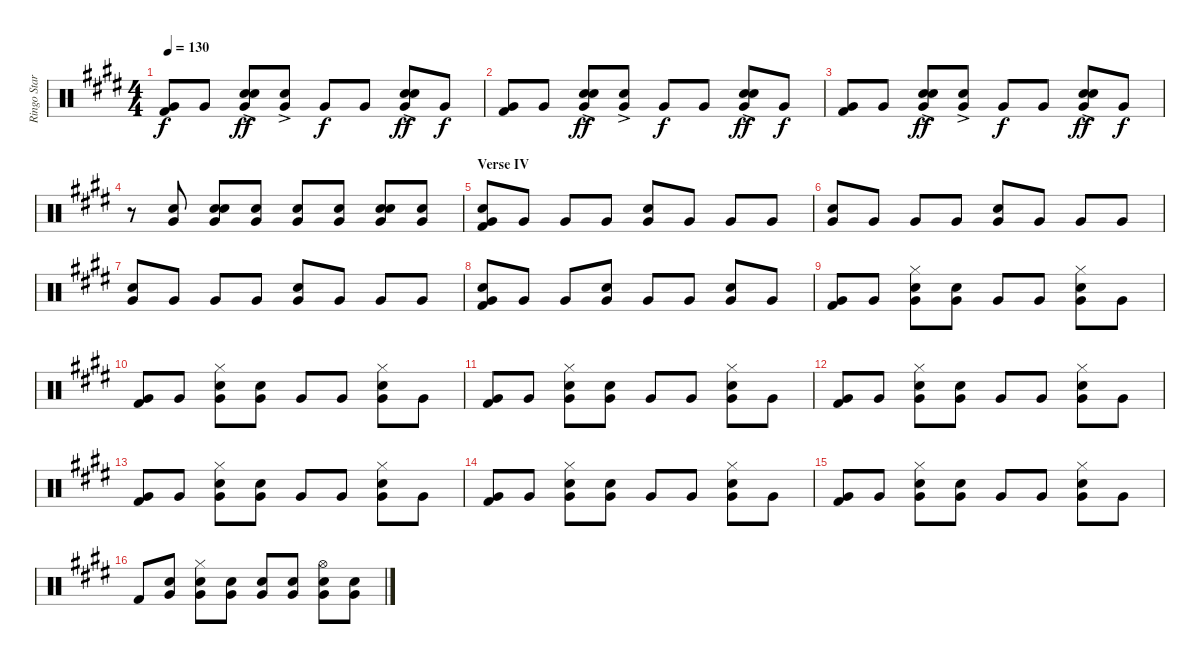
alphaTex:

\track ("Ringo Starr Drums" "Ringo Star") {instrument percussion}
\staff {score}
\articulation defaults
\ts (4 4)
\tempo 130
\clef neutral
\ks e
("Very Low Tom (hit)" "Kick (hit) 2").8{dy f} "Very Low Tom (hit)".8 ("Hand Clap (hit)" "Very Low Tom (hit)" "Snare (hit) 2"{ac}).8{dy ff} ("Very Low Tom (hit)" "Snare (hit) 2"{ac}).8 "Very Low Tom (hit)".8{dy f} "Very Low Tom (hit)".8 ("Hand Clap (hit)" "Very Low Tom (hit)" "Snare (hit) 2"{ac}).8{dy ff} "Very Low Tom (hit)".8{dy f} |
("Very Low Tom (hit)" "Kick (hit) 2").8 "Very Low Tom (hit)".8 ("Hand Clap (hit)" "Very Low Tom (hit)" "Snare (hit) 2"{ac}).8{dy ff} ("Very Low Tom (hit)" "Snare (hit) 2"{ac}).8 "Very Low Tom (hit)".8{dy f} "Very Low Tom (hit)".8 ("Hand Clap (hit)" "Very Low Tom (hit)" "Snare (hit) 2"{ac}).8{dy ff} "Very Low Tom (hit)".8{dy f} |
("Very Low Tom (hit)" "Kick (hit) 2").8 "Very Low Tom (hit)".8 ("Hand Clap (hit)" "Very Low Tom (hit)" "Snare (hit) 2"{ac}).8{dy ff} ("Very Low Tom (hit)" "Snare (hit) 2"{ac}).8 "Very Low Tom (hit)".8{dy f} "Very Low Tom (hit)".8 ("Hand Clap (hit)" "Very Low Tom (hit)" "Snare (hit) 2"{ac}).8{dy ff} "Very Low Tom (hit)".8{dy f} |
r.8 ("Very Low Tom (hit)" "Snare (hit) 2").8 ("Hand Clap (hit)" "Very Low Tom (hit)" "Snare (hit) 2").8 ("Very Low Tom (hit)" "Snare (hit) 2").8 ("Very Low Tom (hit)" "Snare (hit) 2").8 ("Very Low Tom (hit)" "Snare (hit) 2").8 ("Hand Clap (hit)" "Very Low Tom (hit)" "Snare (hit) 2").8 ("Very Low Tom (hit)" "Snare (hit) 2").8 |
\section ("" "Verse IV")
("Very Low Tom (hit)" "Snare (hit) 2" "Kick (hit) 2").8 "Very Low Tom (hit)".8 "Very Low Tom (hit)".8 "Very Low Tom (hit)".8 ("Very Low Tom (hit)" "Snare (hit) 2").8 "Very Low Tom (hit)".8 "Very Low Tom (hit)".8 "Very Low Tom (hit)".8 |
("Very Low Tom (hit)" "Snare (hit) 2").8 "Very Low Tom (hit)".8 "Very Low Tom (hit)".8 "Very Low Tom (hit)".8 ("Very Low Tom (hit)" "Snare (hit) 2").8 "Very Low Tom (hit)".8 "Very Low Tom (hit)".8 "Very Low Tom (hit)".8 |
("Very Low Tom (hit)" "Snare (hit) 2").8 "Very Low Tom (hit)".8 "Very Low Tom (hit)".8 "Very Low Tom (hit)".8 ("Very Low Tom (hit)" "Snare (hit) 2").8 "Very Low Tom (hit)".8 "Very Low Tom (hit)".8 "Very Low Tom (hit)".8 |
("Very Low Tom (hit)" "Snare (hit) 2" "Kick (hit) 2").8 "Very Low Tom (hit)".8 "Very Low Tom (hit)".8 ("Very Low Tom (hit)" "Snare (hit) 2").8 "Very Low Tom (hit)".8 "Very Low Tom (hit)".8 ("Very Low Tom (hit)" "Snare (hit) 2").8 "Very Low Tom (hit)".8 |
("Very Low Tom (hit)" "Kick (hit) 2").8 "Very Low Tom (hit)".8 ("Hi-Hat (closed)" "Very Low Tom (hit)" "Snare (hit) 2").8 ("Very Low Tom (hit)" "Snare (hit) 2").8 "Very Low Tom (hit)".8 "Very Low Tom (hit)".8 ("Hi-Hat (closed)" "Very Low Tom (hit)" "Snare (hit) 2").8 "Very Low Tom (hit)".8 |
("Very Low Tom (hit)" "Kick (hit) 2").8 "Very Low Tom (hit)".8 ("Hi-Hat (closed)" "Very Low Tom (hit)" "Snare (hit) 2").8 ("Very Low Tom (hit)" "Snare (hit) 2").8 "Very Low Tom (hit)".8 "Very Low Tom (hit)".8 ("Hi-Hat (closed)" "Very Low Tom (hit)" "Snare (hit) 2").8 "Very Low Tom (hit)".8 |
("Very Low Tom (hit)" "Kick (hit) 2").8 "Very Low Tom (hit)".8 ("Hi-Hat (closed)" "Very Low Tom (hit)" "Snare (hit) 2").8 ("Very Low Tom (hit)" "Snare (hit) 2").8 "Very Low Tom (hit)".8 "Very Low Tom (hit)".8 ("Hi-Hat (closed)" "Very Low Tom (hit)" "Snare (hit) 2").8 "Very Low Tom (hit)".8 |
("Very Low Tom (hit)" "Kick (hit) 2").8 "Very Low Tom (hit)".8 ("Hi-Hat (closed)" "Very Low Tom (hit)" "Snare (hit) 2").8 ("Very Low Tom (hit)" "Snare (hit) 2").8 "Very Low Tom (hit)".8 "Very Low Tom (hit)".8 ("Hi-Hat (closed)" "Very Low Tom (hit)" "Snare (hit) 2").8 "Very Low Tom (hit)".8 |
("Very Low Tom (hit)" "Kick (hit) 2").8 "Very Low Tom (hit)".8 ("Hi-Hat (closed)" "Very Low Tom (hit)" "Snare (hit) 2").8 ("Very Low Tom (hit)" "Snare (hit) 2").8 "Very Low Tom (hit)".8 "Very Low Tom (hit)".8 ("Hi-Hat (closed)" "Very Low Tom (hit)" "Snare (hit) 2").8 "Very Low Tom (hit)".8 |
("Very Low Tom (hit)" "Kick (hit) 2").8 "Very Low Tom (hit)".8 ("Hi-Hat (closed)" "Very Low Tom (hit)" "Snare (hit) 2").8 ("Very Low Tom (hit)" "Snare (hit) 2").8 "Very Low Tom (hit)".8 "Very Low Tom (hit)".8 ("Hi-Hat (closed)" "Very Low Tom (hit)" "Snare (hit) 2").8 "Very Low Tom (hit)".8 |
("Very Low Tom (hit)" "Kick (hit) 2").8 "Very Low Tom (hit)".8 ("Hi-Hat (closed)" "Very Low Tom (hit)" "Snare (hit) 2").8 ("Very Low Tom (hit)" "Snare (hit) 2").8 "Very Low Tom (hit)".8 "Very Low Tom (hit)".8 ("Hi-Hat (closed)" "Very Low Tom (hit)" "Snare (hit) 2").8 "Very Low Tom (hit)".8 |
"Kick (hit) 2".8 ("Very Low Tom (hit)" "Snare (hit) 2").8 ("Hi-Hat (closed)" "Very Low Tom (hit)" "Snare (hit) 2").8 ("Very Low Tom (hit)" "Snare (hit) 2").8 ("Very Low Tom (hit)" "Snare (hit) 2").8 ("Very Low Tom (hit)" "Snare (hit) 2").8 ("Hi-Hat (open)" "Very Low Tom (hit)" "Snare (hit) 2").8 ("Very Low Tom (hit)" "Snare (hit) 2").8
